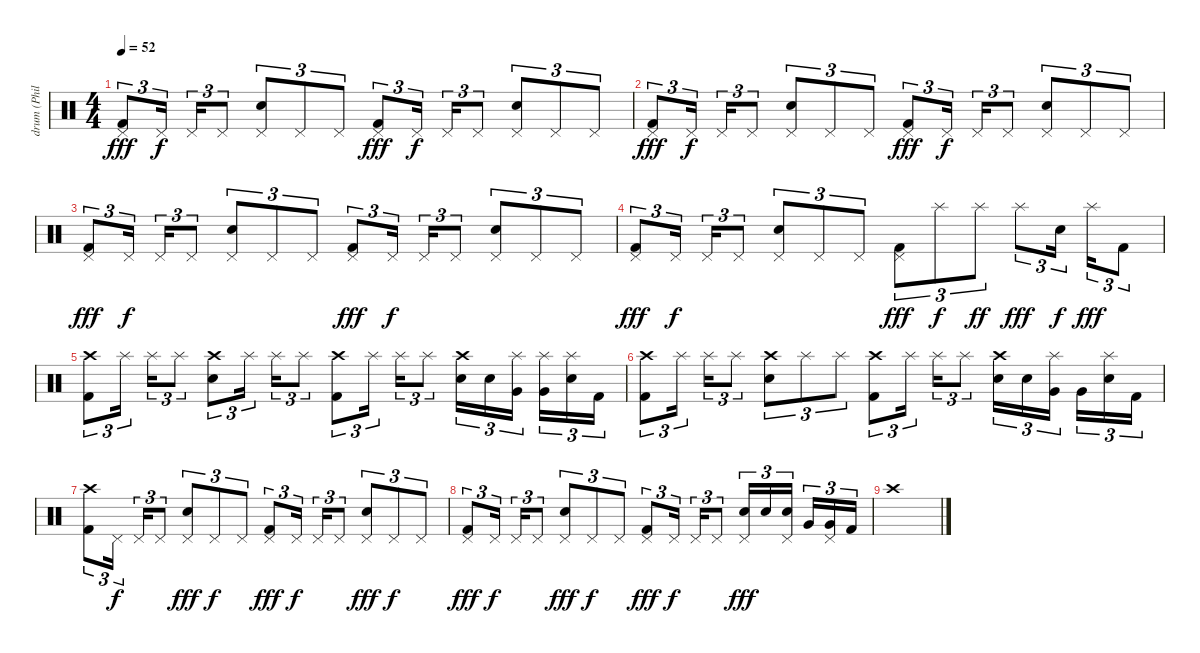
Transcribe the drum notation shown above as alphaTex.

\track ("drum (Phil)" "drum (Phil") {instrument percussion}
\staff {score}
\articulation defaults
\ts (4 4)
\tempo 52
\clef neutral
\ks c
("Pedal Hi-Hat (hit)" "Kick (hit) 2").8{tu (3 2) dy fff} "Pedal Hi-Hat (hit)".16{tu (3 2) dy f} "Pedal Hi-Hat (hit)".16{tu (3 2)} "Pedal Hi-Hat (hit)".8{tu (3 2)} ("Pedal Hi-Hat (hit)" "Electric Snare (hit)").8{tu (3 2)} "Pedal Hi-Hat (hit)".8{tu (3 2)} "Pedal Hi-Hat (hit)".8{tu (3 2)} ("Pedal Hi-Hat (hit)" "Kick (hit) 2").8{tu (3 2) dy fff} "Pedal Hi-Hat (hit)".16{tu (3 2) dy f} "Pedal Hi-Hat (hit)".16{tu (3 2)} "Pedal Hi-Hat (hit)".8{tu (3 2)} ("Pedal Hi-Hat (hit)" "Electric Snare (hit)").8{tu (3 2)} "Pedal Hi-Hat (hit)".8{tu (3 2)} "Pedal Hi-Hat (hit)".8{tu (3 2)} |
("Pedal Hi-Hat (hit)" "Kick (hit) 2").8{tu (3 2) dy fff} "Pedal Hi-Hat (hit)".16{tu (3 2) dy f} "Pedal Hi-Hat (hit)".16{tu (3 2)} "Pedal Hi-Hat (hit)".8{tu (3 2)} ("Pedal Hi-Hat (hit)" "Electric Snare (hit)").8{tu (3 2)} "Pedal Hi-Hat (hit)".8{tu (3 2)} "Pedal Hi-Hat (hit)".8{tu (3 2)} ("Pedal Hi-Hat (hit)" "Kick (hit) 2").8{tu (3 2) dy fff} "Pedal Hi-Hat (hit)".16{tu (3 2) dy f} "Pedal Hi-Hat (hit)".16{tu (3 2)} "Pedal Hi-Hat (hit)".8{tu (3 2)} ("Pedal Hi-Hat (hit)" "Electric Snare (hit)").8{tu (3 2)} "Pedal Hi-Hat (hit)".8{tu (3 2)} "Pedal Hi-Hat (hit)".8{tu (3 2)} |
("Pedal Hi-Hat (hit)" "Kick (hit) 2").8{tu (3 2) dy fff} "Pedal Hi-Hat (hit)".16{tu (3 2) dy f} "Pedal Hi-Hat (hit)".16{tu (3 2)} "Pedal Hi-Hat (hit)".8{tu (3 2)} ("Pedal Hi-Hat (hit)" "Electric Snare (hit)").8{tu (3 2)} "Pedal Hi-Hat (hit)".8{tu (3 2)} "Pedal Hi-Hat (hit)".8{tu (3 2)} ("Pedal Hi-Hat (hit)" "Kick (hit) 2").8{tu (3 2) dy fff} "Pedal Hi-Hat (hit)".16{tu (3 2) dy f} "Pedal Hi-Hat (hit)".16{tu (3 2)} "Pedal Hi-Hat (hit)".8{tu (3 2)} ("Pedal Hi-Hat (hit)" "Electric Snare (hit)").8{tu (3 2)} "Pedal Hi-Hat (hit)".8{tu (3 2)} "Pedal Hi-Hat (hit)".8{tu (3 2)} |
("Pedal Hi-Hat (hit)" "Kick (hit) 2").8{tu (3 2) dy fff} "Pedal Hi-Hat (hit)".16{tu (3 2) dy f} "Pedal Hi-Hat (hit)".16{tu (3 2)} "Pedal Hi-Hat (hit)".8{tu (3 2)} ("Pedal Hi-Hat (hit)" "Electric Snare (hit)").8{tu (3 2)} "Pedal Hi-Hat (hit)".8{tu (3 2)} "Pedal Hi-Hat (hit)".8{tu (3 2)} ("Pedal Hi-Hat (hit)" "Kick (hit) 2").8{tu (3 2) dy fff} "Splash (hit)".8{tu (3 2) dy f} "Splash (hit)".8{tu (3 2) dy ff} "Splash (hit)".8{tu (3 2) dy fff} "Electric Snare (hit)".16{tu (3 2) dy f} "Splash (hit)".16{tu (3 2) dy fff} "Kick (hit) 2".8{tu (3 2)} |
("Crash high (hit)" "Kick (hit) 2").8{tu (3 2)} "Splash (hit)".16{tu (3 2)} "Splash (hit)".16{tu (3 2)} "Splash (hit)".8{tu (3 2)} ("Crash high (hit)" "Electric Snare (hit)").8{tu (3 2)} "Splash (hit)".16{tu (3 2)} "Splash (hit)".16{tu (3 2)} "Splash (hit)".8{tu (3 2)} ("Crash high (hit)" "Kick (hit) 2").8{tu (3 2)} "Splash (hit)".16{tu (3 2)} "Splash (hit)".16{tu (3 2)} "Splash (hit)".8{tu (3 2)} ("Crash high (hit)" "Electric Snare (hit)").16{tu (3 2)} "Electric Snare (hit)".16{tu (3 2)} ("Splash (hit)" "Very Low Tom (hit)").16{tu (3 2)} ("Splash (hit)" "Very Low Tom (hit)").16{tu (3 2)} ("Splash (hit)" "Electric Snare (hit)").16{tu (3 2)} "Kick (hit) 2".16{tu (3 2)} |
("Crash high (hit)" "Kick (hit) 2").8{tu (3 2)} "Splash (hit)".16{tu (3 2)} "Splash (hit)".16{tu (3 2)} "Splash (hit)".8{tu (3 2)} ("Crash high (hit)" "Electric Snare (hit)").8{tu (3 2)} "Splash (hit)".8{tu (3 2)} "Splash (hit)".8{tu (3 2)} ("Crash high (hit)" "Kick (hit) 2").8{tu (3 2)} "Splash (hit)".16{tu (3 2)} "Splash (hit)".16{tu (3 2)} "Splash (hit)".8{tu (3 2)} ("Crash high (hit)" "Electric Snare (hit)").16{tu (3 2)} "Electric Snare (hit)".16{tu (3 2)} ("Splash (hit)" "Very Low Tom (hit)").16{tu (3 2)} "Very Low Tom (hit)".16{tu (3 2)} ("Splash (hit)" "Electric Snare (hit)").16{tu (3 2)} "Kick (hit) 2".16{tu (3 2)} |
("Crash high (hit)" "Kick (hit) 2").8{tu (3 2)} "Pedal Hi-Hat (hit)".16{tu (3 2) dy f} "Pedal Hi-Hat (hit)".16{tu (3 2)} "Pedal Hi-Hat (hit)".8{tu (3 2)} ("Pedal Hi-Hat (hit)" "Electric Snare (hit)").8{tu (3 2) dy fff} "Pedal Hi-Hat (hit)".8{tu (3 2) dy f} "Pedal Hi-Hat (hit)".8{tu (3 2)} ("Pedal Hi-Hat (hit)" "Kick (hit) 2").8{tu (3 2) dy fff} "Pedal Hi-Hat (hit)".16{tu (3 2) dy f} "Pedal Hi-Hat (hit)".16{tu (3 2)} "Pedal Hi-Hat (hit)".8{tu (3 2)} ("Pedal Hi-Hat (hit)" "Electric Snare (hit)").8{tu (3 2) dy fff} "Pedal Hi-Hat (hit)".8{tu (3 2) dy f} "Pedal Hi-Hat (hit)".8{tu (3 2)} |
("Pedal Hi-Hat (hit)" "Kick (hit) 2").8{tu (3 2) dy fff} "Pedal Hi-Hat (hit)".16{tu (3 2) dy f} "Pedal Hi-Hat (hit)".16{tu (3 2)} "Pedal Hi-Hat (hit)".8{tu (3 2)} ("Pedal Hi-Hat (hit)" "Electric Snare (hit)").8{tu (3 2) dy fff} "Pedal Hi-Hat (hit)".8{tu (3 2) dy f} "Pedal Hi-Hat (hit)".8{tu (3 2)} ("Pedal Hi-Hat (hit)" "Kick (hit) 2").8{tu (3 2) dy fff} "Pedal Hi-Hat (hit)".16{tu (3 2) dy f} "Pedal Hi-Hat (hit)".16{tu (3 2)} "Pedal Hi-Hat (hit)".8{tu (3 2)} ("Pedal Hi-Hat (hit)" "Electric Snare (hit)").16{tu (3 2) dy fff} "Electric Snare (hit)".16{tu (3 2)} ("Pedal Hi-Hat (hit)" "Electric Snare (hit)").16{tu (3 2)} "Very Low Tom (hit)".16{tu (3 2)} ("Pedal Hi-Hat (hit)" "Very Low Tom (hit)").16{tu (3 2)} "Kick (hit) 2".16{tu (3 2)} |
"Crash high (hit)".1
